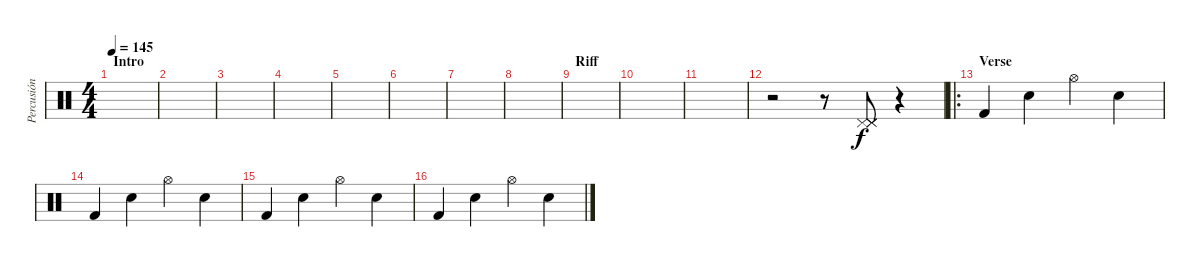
\track ("Percusión" "Percusión") {instrument percussion}
\staff {score}
\articulation defaults
\ts (4 4)
\section ("" "Intro")
\tempo 145
\clef neutral
\ks c
|
|
|
|
|
|
|
|
\section ("" "Riff")
|
|
|
r.2 r.8 ("Pedal Hi-Hat (hit)" "Pedal Hi-Hat (hit)" "Pedal Hi-Hat (hit)" "Pedal Hi-Hat (hit)").8 r.4 |
\ro
\section ("" "Verse ")
"Kick (hit) 2".4 "Snare (hit) 2".4 "Hi-Hat (open)".4 "Snare (hit) 2".4 |
"Kick (hit) 2".4 "Snare (hit) 2".4 "Hi-Hat (open)".4 "Snare (hit) 2".4 |
"Kick (hit) 2".4 "Snare (hit) 2".4 "Hi-Hat (open)".4 "Snare (hit) 2".4 |
"Kick (hit) 2".4 "Snare (hit) 2".4 "Hi-Hat (open)".4 "Snare (hit) 2".4
